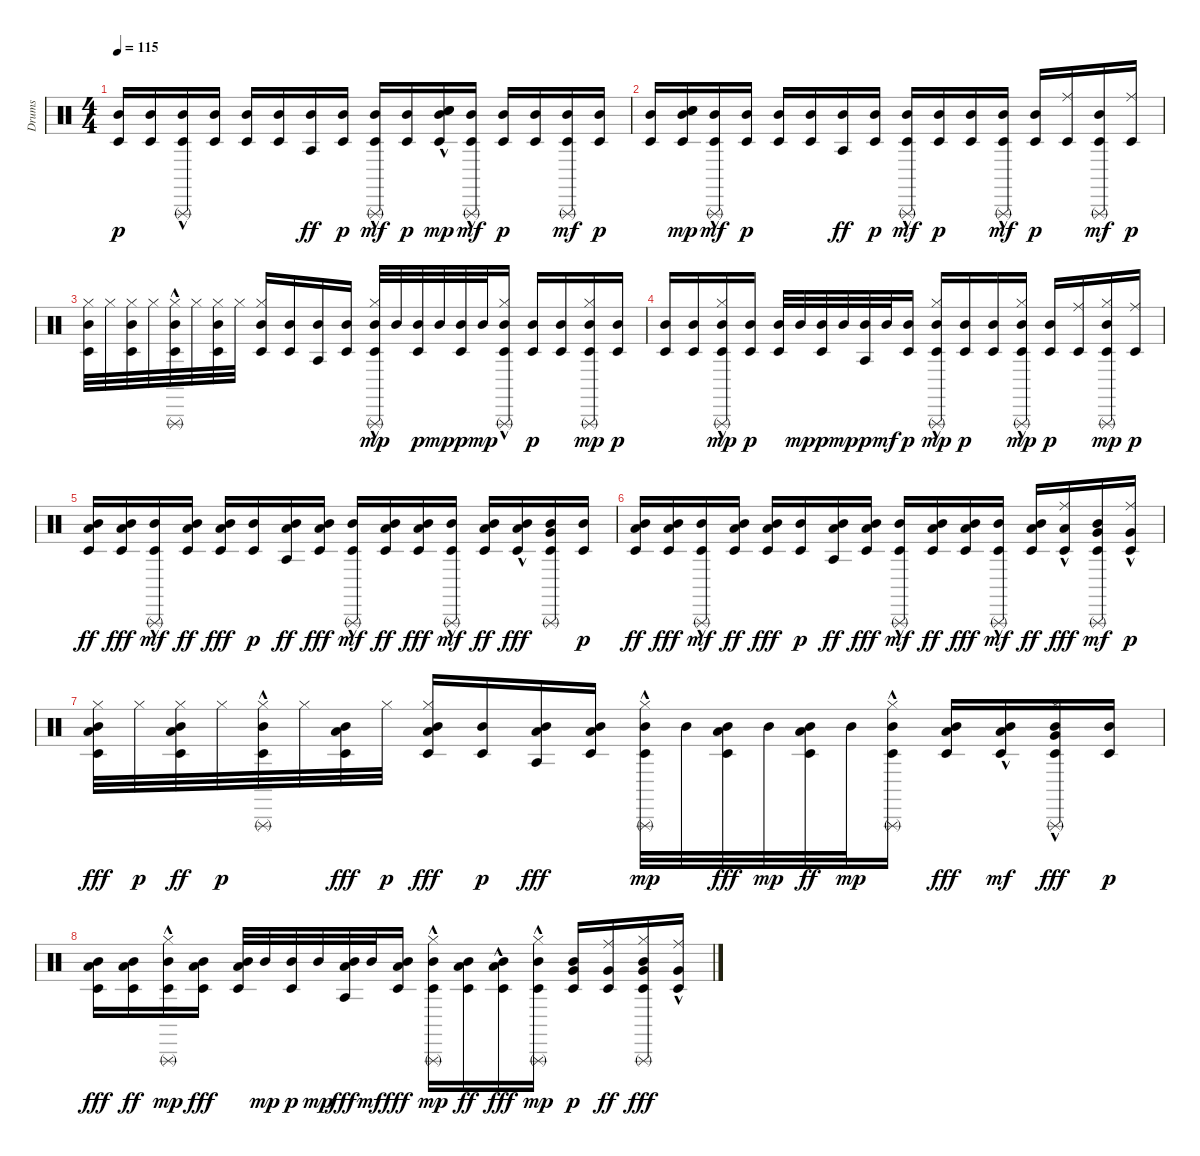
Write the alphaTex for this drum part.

\track ("Drums" "Drums") {instrument percussion}
\staff {score}
\articulation defaults
\ts (4 4)
\section ("" "")
\tempo 115
\clef neutral
\ks c
("Mid Tom (hit)" "Timbale low (hit)").16{dy p} ("Mid Tom (hit)" "Timbale low (hit)").16 ("Triangle (rnute)"{hac} "Mid Tom (hit)" "Timbale low (hit)").16 ("Mid Tom (hit)" "Timbale low (hit)").16 ("Mid Tom (hit)" "Timbale low (hit)").16 ("Timbale low (hit)" "Mid Tom (hit)").16 ("Agogo tow (hit)" "Mid Tom (hit)").16{dy ff} ("Mid Tom (hit)" "Timbale low (hit)").16{dy p} ("Mid Tom (hit)" "Timbale low (hit)" "Triangle (rnute)"{hac}).16{dy mf} ("Mid Tom (hit)" "Timbale low (hit)").16{dy p} ("Timbale low (hit)" "Mid Tom (hit)" "Snare (hit)"{hac} "Snare (hit)"{hac}).16{dy mp} ("Mid Tom (hit)" "Timbale low (hit)" "Triangle (rnute)"{hac}).16{dy mf} ("Mid Tom (hit)" "Timbale low (hit)").16{dy p} ("Mid Tom (hit)" "Timbale low (hit)").16 ("Mid Tom (hit)" "Timbale low (hit)" "Triangle (rnute)").16{dy mf} ("Mid Tom (hit)" "Timbale low (hit)").16{dy p} |
("Mid Tom (hit)" "Timbale low (hit)").16 ("Timbale low (hit)" "Mid Tom (hit)" "Snare (hit)" "Snare (hit)").16{dy mp} ("Mid Tom (hit)" "Timbale low (hit)" "Triangle (rnute)"{hac}).16{dy mf} ("Mid Tom (hit)" "Timbale low (hit)").16{dy p} ("Mid Tom (hit)" "Timbale low (hit)").16 ("Mid Tom (hit)" "Timbale low (hit)").16 ("Agogo tow (hit)" "Mid Tom (hit)").16{dy ff} ("Mid Tom (hit)" "Timbale low (hit)").16{dy p} ("Mid Tom (hit)" "Timbale low (hit)" "Triangle (rnute)"{hac}).16{dy mf} ("Mid Tom (hit)" "Timbale low (hit)").16{dy p} ("Mid Tom (hit)" "Timbale low (hit)").16 ("Mid Tom (hit)" "Timbale low (hit)" "Triangle (rnute)"{hac}).16{dy mf} ("Mid Tom (hit)" "Timbale low (hit)").16{dy p} ("Ride (middle)" "Timbale low (hit)").16 ("Mid Tom (hit)" "Timbale low (hit)" "Triangle (rnute)").16{dy mf} ("Ride (middle)" "Timbale low (hit)").16{dy p} |
("Mid Tom (hit)" "Timbale low (hit)" "Hi-Hat (closed)").32 "Hi-Hat (closed)".32 ("Mid Tom (hit)" "Timbale low (hit)" "Hi-Hat (closed)").32 "Hi-Hat (closed)".32 ("Mid Tom (hit)" "Timbale low (hit)" "Triangle (rnute)"{hac} "Hi-Hat (closed)").32 "Hi-Hat (closed)".32 ("Mid Tom (hit)" "Timbale low (hit)" "Hi-Hat (closed)").32 "Hi-Hat (closed)".32 ("Mid Tom (hit)" "Timbale low (hit)" "Hi-Hat (closed)").16 ("Mid Tom (hit)" "Timbale low (hit)").16 ("Mid Tom (hit)" "Agogo tow (hit)").16 ("Mid Tom (hit)" "Timbale low (hit)").16 ("Mid Tom (hit)" "Timbale low (hit)" "Triangle (rnute)"{hac} "Hi-Hat (closed)"{hac}).32{dy mp} "Mid Tom (hit)".32 ("Mid Tom (hit)" "Timbale low (hit)").32{dy p} "Mid Tom (hit)".32{dy mp} ("Mid Tom (hit)" "Timbale low (hit)").32{dy p} "Mid Tom (hit)".32{dy mp} ("Mid Tom (hit)" "Timbale low (hit)" "Triangle (rnute)"{hac} "Hi-Hat (closed)"{hac}).16 ("Mid Tom (hit)" "Timbale low (hit)").16{dy p} ("Mid Tom (hit)" "Timbale low (hit)").16 ("Mid Tom (hit)" "Timbale low (hit)" "Triangle (rnute)" "Hi-Hat (closed)").16{dy mp} ("Mid Tom (hit)" "Timbale low (hit)").16{dy p} |
("Mid Tom (hit)" "Timbale low (hit)").16 ("Mid Tom (hit)" "Timbale low (hit)").16 ("Mid Tom (hit)" "Timbale low (hit)" "Triangle (rnute)"{hac} "Hi-Hat (closed)"{hac}).16{dy mp} ("Mid Tom (hit)" "Timbale low (hit)").16{dy p} ("Mid Tom (hit)" "Timbale low (hit)").32 "Mid Tom (hit)".32{dy mp} ("Mid Tom (hit)" "Timbale low (hit)").32{dy p} "Mid Tom (hit)".32{dy mp} ("Mid Tom (hit)" "Agogo tow (hit)").32{dy p} "Mid Tom (hit)".32{dy mf} ("Mid Tom (hit)" "Timbale low (hit)").16{dy p} ("Mid Tom (hit)" "Timbale low (hit)" "Triangle (rnute)"{hac} "Hi-Hat (closed)"{hac}).16{dy mp} ("Mid Tom (hit)" "Timbale low (hit)").16{dy p} ("Mid Tom (hit)" "Timbale low (hit)").16 ("Mid Tom (hit)" "Timbale low (hit)" "Triangle (rnute)"{hac} "Hi-Hat (closed)"{hac}).16{dy mp} ("Mid Tom (hit)" "Timbale low (hit)").16{dy p} ("Ride (middle)" "Timbale low (hit)").16 ("Mid Tom (hit)" "Timbale low (hit)" "Triangle (rnute)" "Hi-Hat (closed)").16{dy mp} ("Ride (middle)" "Timbale low (hit)").16{dy p} |
("Mid Tom (hit)" "Timbale low (hit)" "Low Floor Tom (hit)").16{dy ff} ("Mid Tom (hit)" "Timbale low (hit)" "Low Floor Tom (hit)").16{dy fff} ("Mid Tom (hit)" "Timbale low (hit)" "Triangle (rnute)"{hac}).16{dy mf} ("Mid Tom (hit)" "Timbale low (hit)" "Low Floor Tom (hit)").16{dy ff} ("Mid Tom (hit)" "Timbale low (hit)" "Low Floor Tom (hit)").16{dy fff} ("Mid Tom (hit)" "Timbale low (hit)").16{dy p} ("Mid Tom (hit)" "Agogo tow (hit)" "Low Floor Tom (hit)").16{dy ff} ("Mid Tom (hit)" "Timbale low (hit)" "Low Floor Tom (hit)").16{dy fff} ("Mid Tom (hit)" "Timbale low (hit)" "Triangle (rnute)"{hac}).16{dy mf} ("Mid Tom (hit)" "Timbale low (hit)" "Low Floor Tom (hit)").16{dy ff} ("Mid Tom (hit)" "Timbale low (hit)" "Low Floor Tom (hit)").16{dy fff} ("Mid Tom (hit)" "Timbale low (hit)" "Triangle (rnute)"{hac}).16{dy mf} ("Mid Tom (hit)" "Timbale low (hit)" "Low Floor Tom (hit)").16{dy ff} ("Mid Tom (hit)" "Timbale low (hit)" "Low Floor Tom (hit)"{hac}).16{dy fff} ("Mid Tom (hit)" "Timbale low (hit)" "Triangle (rnute)" "Very Low Tom (hit)").16 ("Mid Tom (hit)" "Timbale low (hit)").16{dy p} |
("Mid Tom (hit)" "Timbale low (hit)" "Low Floor Tom (hit)").16{dy ff} ("Mid Tom (hit)" "Timbale low (hit)" "Low Floor Tom (hit)").16{dy fff} ("Mid Tom (hit)" "Timbale low (hit)" "Triangle (rnute)"{hac}).16{dy mf} ("Mid Tom (hit)" "Timbale low (hit)" "Low Floor Tom (hit)").16{dy ff} ("Mid Tom (hit)" "Timbale low (hit)" "Low Floor Tom (hit)").16{dy fff} ("Mid Tom (hit)" "Timbale low (hit)").16{dy p} ("Mid Tom (hit)" "Agogo tow (hit)" "Low Floor Tom (hit)").16{dy ff} ("Timbale low (hit)" "Mid Tom (hit)" "Low Floor Tom (hit)").16{dy fff} ("Mid Tom (hit)" "Timbale low (hit)" "Triangle (rnute)"{hac}).16{dy mf} ("Mid Tom (hit)" "Timbale low (hit)" "Low Floor Tom (hit)").16{dy ff} ("Mid Tom (hit)" "Timbale low (hit)" "Low Floor Tom (hit)").16{dy fff} ("Mid Tom (hit)" "Timbale low (hit)" "Triangle (rnute)"{hac}).16{dy mf} ("Mid Tom (hit)" "Timbale low (hit)" "Low Floor Tom (hit)").16{dy ff} ("Ride (middle)" "Timbale low (hit)" "Low Floor Tom (hit)"{hac}).16{dy fff} ("Very Low Tom (hit)" "Mid Tom (hit)" "Timbale low (hit)" "Triangle (rnute)").16{dy mf} ("Very Low Tom (hit)"{hac} "Ride (middle)" "Timbale low (hit)").16{dy p} |
("Mid Tom (hit)" "Timbale low (hit)" "Hi-Hat (closed)" "Low Floor Tom (hit)").32{dy fff} "Hi-Hat (closed)".32{dy p} ("Mid Tom (hit)" "Timbale low (hit)" "Hi-Hat (closed)" "Low Floor Tom (hit)").32{dy ff} "Hi-Hat (closed)".32{dy p} ("Mid Tom (hit)" "Timbale low (hit)" "Triangle (rnute)"{hac} "Hi-Hat (closed)").32 "Hi-Hat (closed)".32 ("Mid Tom (hit)" "Timbale low (hit)" "Low Floor Tom (hit)").32{dy fff} "Hi-Hat (closed)".32{dy p} ("Mid Tom (hit)" "Timbale low (hit)" "Hi-Hat (closed)" "Low Floor Tom (hit)").16{dy fff} ("Mid Tom (hit)" "Timbale low (hit)").16{dy p} ("Mid Tom (hit)" "Agogo tow (hit)" "Low Floor Tom (hit)").16{dy fff} ("Mid Tom (hit)" "Timbale low (hit)" "Low Floor Tom (hit)").16 ("Mid Tom (hit)" "Timbale low (hit)" "Triangle (rnute)"{hac} "Hi-Hat (closed)"{hac}).32{dy mp} "Mid Tom (hit)".32 ("Mid Tom (hit)" "Timbale low (hit)" "Low Floor Tom (hit)").32{dy fff} "Mid Tom (hit)".32{dy mp} ("Mid Tom (hit)" "Timbale low (hit)" "Low Floor Tom (hit)").32{dy ff} "Mid Tom (hit)".32{dy mp} ("Mid Tom (hit)" "Timbale low (hit)" "Triangle (rnute)"{hac} "Hi-Hat (closed)"{hac}).16 ("Mid Tom (hit)" "Timbale low (hit)" "Low Floor Tom (hit)").16{dy fff} ("Mid Tom (hit)" "Timbale low (hit)" "Low Floor Tom (hit)"{hac}).16{dy mf} ("Mid Tom (hit)" "Timbale low (hit)" "Triangle (rnute)" "Hi-Hat (closed)" "Very Low Tom (hit)"{hac}).16{dy fff} ("Mid Tom (hit)" "Timbale low (hit)").16{dy p} |
("Mid Tom (hit)" "Timbale low (hit)" "Low Floor Tom (hit)").16{dy fff} ("Mid Tom (hit)" "Timbale low (hit)" "Low Floor Tom (hit)").16{dy ff} ("Mid Tom (hit)" "Timbale low (hit)" "Triangle (rnute)"{hac} "Hi-Hat (closed)"{hac}).16{dy mp} ("Mid Tom (hit)" "Timbale low (hit)" "Low Floor Tom (hit)").16{dy fff} ("Mid Tom (hit)" "Timbale low (hit)" "Low Floor Tom (hit)").32 "Mid Tom (hit)".32{dy mp} ("Mid Tom (hit)" "Timbale low (hit)").32{dy p} "Mid Tom (hit)".32{dy mp} ("Mid Tom (hit)" "Agogo tow (hit)" "Low Floor Tom (hit)").32{dy fff} "Mid Tom (hit)".32{dy mf} ("Mid Tom (hit)" "Timbale low (hit)" "Low Floor Tom (hit)").16{dy fff} ("Mid Tom (hit)" "Timbale low (hit)" "Triangle (rnute)"{hac} "Hi-Hat (closed)"{hac}).16{dy mp} ("Mid Tom (hit)" "Timbale low (hit)" "Low Floor Tom (hit)").16{dy ff} ("Mid Tom (hit)" "Timbale low (hit)" "Low Floor Tom (hit)"{hac}).16{dy fff} ("Mid Tom (hit)" "Timbale low (hit)" "Triangle (rnute)"{hac} "Hi-Hat (closed)"{hac}).16{dy mp} ("Mid Tom (hit)" "Timbale low (hit)" "Very Low Tom (hit)").16{dy p} ("Ride (middle)" "Timbale low (hit)" "Very Low Tom (hit)").16{dy ff} ("Mid Tom (hit)" "Timbale low (hit)" "Triangle (rnute)" "Hi-Hat (closed)" "Very Low Tom (hit)").16{dy fff} ("Ride (middle)" "Timbale low (hit)" "Very Low Tom (hit)"{hac}).16
